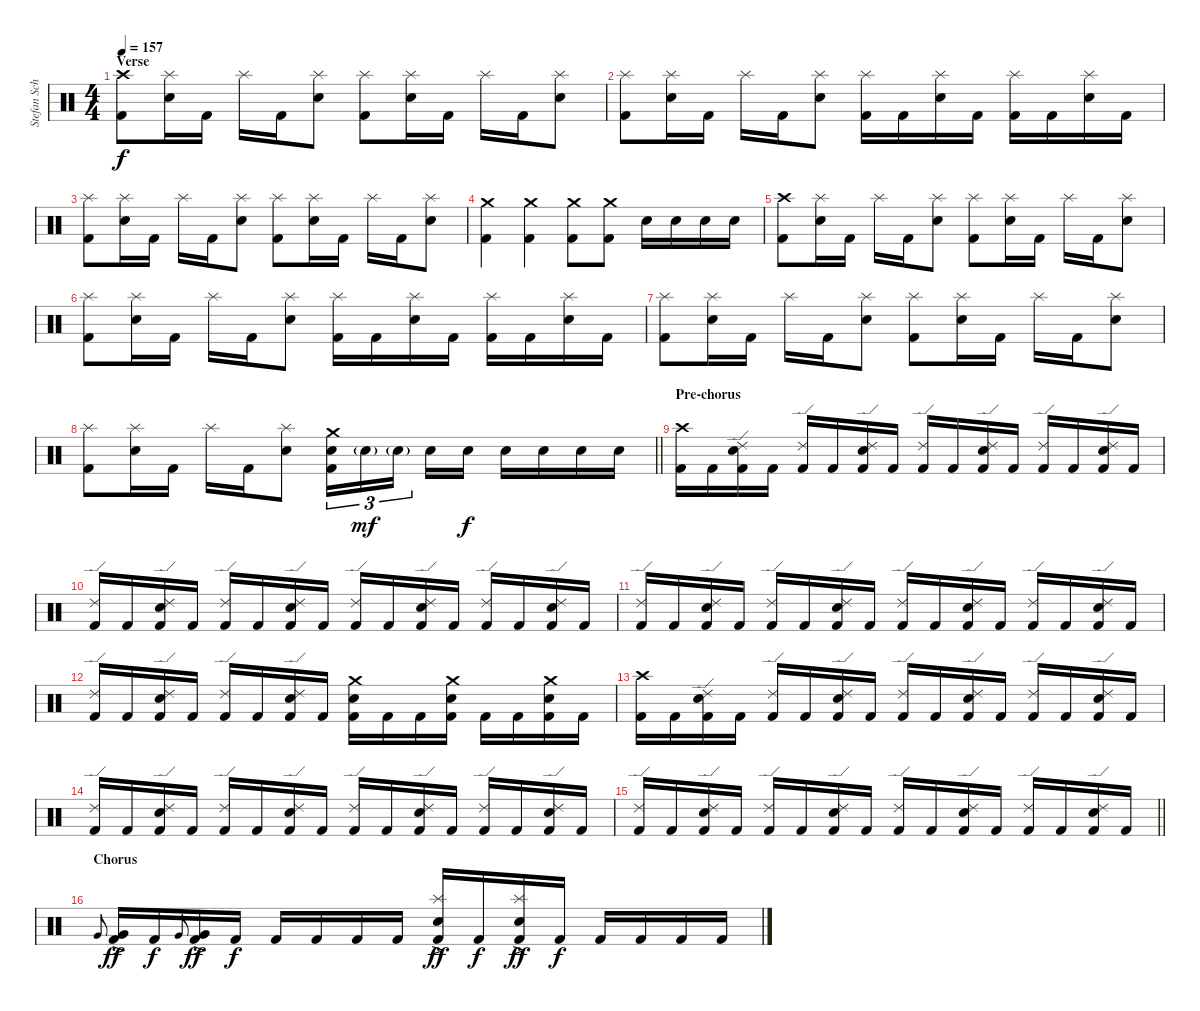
\track ("Stefan Schwarzmann" "Stefan Sch") {instrument percussion}
\staff {score}
\articulation defaults
\ts (4 4)
\section ("" "Verse")
\tempo 157
\clef neutral
\ks c
("Crash high (hit)" "Kick (hit) 2").8{dy f} ("Splash (hit)" "Snare (hit) 2").16 "Kick (hit) 2".16 "Splash (hit)".16 "Kick (hit) 2".16 ("Splash (hit)" "Snare (hit) 2").8 ("Splash (hit)" "Kick (hit) 2").8 ("Splash (hit)" "Snare (hit) 2").16 "Kick (hit) 2".16 "Splash (hit)".16 "Kick (hit) 2".16 ("Splash (hit)" "Snare (hit) 2").8 |
("Splash (hit)" "Kick (hit) 2").8 ("Splash (hit)" "Snare (hit) 2").16 "Kick (hit) 2".16 "Splash (hit)".16 "Kick (hit) 2".16 ("Splash (hit)" "Snare (hit) 2").8 ("Splash (hit)" "Kick (hit) 2").16 "Kick (hit) 2".16 ("Splash (hit)" "Snare (hit) 2").16 "Kick (hit) 2".16 ("Splash (hit)" "Kick (hit) 2").16 "Kick (hit) 2".16 ("Splash (hit)" "Snare (hit) 2").16 "Kick (hit) 2".16 |
("Splash (hit)" "Kick (hit) 2").8 ("Splash (hit)" "Snare (hit) 2").16 "Kick (hit) 2".16 "Splash (hit)".16 "Kick (hit) 2".16 ("Splash (hit)" "Snare (hit) 2").8 ("Splash (hit)" "Kick (hit) 2").8 ("Splash (hit)" "Snare (hit) 2").16 "Kick (hit) 2".16 "Splash (hit)".16 "Kick (hit) 2".16 ("Splash (hit)" "Snare (hit) 2").8 |
("Crash medium (hit)" "Kick (hit) 2").4 ("Crash medium (hit)" "Kick (hit) 2").4 ("Crash medium (hit)" "Kick (hit) 2").8 ("Crash medium (hit)" "Kick (hit) 2").8 "Snare (hit) 2".16 "Snare (hit) 2".16 "Snare (hit) 2".16 "Snare (hit) 2".16 |
("Crash high (hit)" "Kick (hit) 2").8 ("Splash (hit)" "Snare (hit) 2").16 "Kick (hit) 2".16 "Splash (hit)".16 "Kick (hit) 2".16 ("Splash (hit)" "Snare (hit) 2").8 ("Splash (hit)" "Kick (hit) 2").8 ("Splash (hit)" "Snare (hit) 2").16 "Kick (hit) 2".16 "Splash (hit)".16 "Kick (hit) 2".16 ("Splash (hit)" "Snare (hit) 2").8 |
("Splash (hit)" "Kick (hit) 2").8 ("Splash (hit)" "Snare (hit) 2").16 "Kick (hit) 2".16 "Splash (hit)".16 "Kick (hit) 2".16 ("Splash (hit)" "Snare (hit) 2").8 ("Splash (hit)" "Kick (hit) 2").16 "Kick (hit) 2".16 ("Splash (hit)" "Snare (hit) 2").16 "Kick (hit) 2".16 ("Splash (hit)" "Kick (hit) 2").16 "Kick (hit) 2".16 ("Splash (hit)" "Snare (hit) 2").16 "Kick (hit) 2".16 |
("Splash (hit)" "Kick (hit) 2").8 ("Splash (hit)" "Snare (hit) 2").16 "Kick (hit) 2".16 "Splash (hit)".16 "Kick (hit) 2".16 ("Splash (hit)" "Snare (hit) 2").8 ("Splash (hit)" "Kick (hit) 2").8 ("Splash (hit)" "Snare (hit) 2").16 "Kick (hit) 2".16 "Splash (hit)".16 "Kick (hit) 2".16 ("Splash (hit)" "Snare (hit) 2").8 |
\barLineRight lightlight
("Splash (hit)" "Kick (hit) 2").8 ("Splash (hit)" "Snare (hit) 2").16 "Kick (hit) 2".16 "Splash (hit)".16 "Kick (hit) 2".16 ("Splash (hit)" "Snare (hit) 2").8 ("Crash medium (hit)" "Snare (hit) 2" "Kick (hit) 2").16{tu (3 2)} "Snare (hit) 2"{g}.16{tu (3 2) dy mf} "Snare (hit) 2"{g}.16{tu (3 2) beam splitsecondary} "Snare (hit) 2".16 "Snare (hit) 2".16{dy f} "Snare (hit) 2".16 "Snare (hit) 2".16 "Snare (hit) 2".16 "Snare (hit) 2".16 |
\section ("" "Pre-chorus")
("Crash high (hit)" "Kick (hit) 2").16 "Kick (hit) 2".16 ("Ride (edge) 2" "Snare (hit) 2" "Kick (hit) 2").16 "Kick (hit) 2".16 ("Ride (edge) 2" "Kick (hit) 2").16 "Kick (hit) 2".16 ("Ride (edge) 2" "Snare (hit) 2" "Kick (hit) 2").16 "Kick (hit) 2".16 ("Ride (edge) 2" "Kick (hit) 2").16 "Kick (hit) 2".16 ("Ride (edge) 2" "Snare (hit) 2" "Kick (hit) 2").16 "Kick (hit) 2".16 ("Ride (edge) 2" "Kick (hit) 2").16 "Kick (hit) 2".16 ("Ride (edge) 2" "Snare (hit) 2" "Kick (hit) 2").16 "Kick (hit) 2".16 |
("Ride (edge) 2" "Kick (hit) 2").16 "Kick (hit) 2".16 ("Ride (edge) 2" "Snare (hit) 2" "Kick (hit) 2").16 "Kick (hit) 2".16 ("Ride (edge) 2" "Kick (hit) 2").16 "Kick (hit) 2".16 ("Ride (edge) 2" "Snare (hit) 2" "Kick (hit) 2").16 "Kick (hit) 2".16 ("Ride (edge) 2" "Kick (hit) 2").16 "Kick (hit) 2".16 ("Ride (edge) 2" "Snare (hit) 2" "Kick (hit) 2").16 "Kick (hit) 2".16 ("Ride (edge) 2" "Kick (hit) 2").16 "Kick (hit) 2".16 ("Ride (edge) 2" "Snare (hit) 2" "Kick (hit) 2").16 "Kick (hit) 2".16 |
("Ride (edge) 2" "Kick (hit) 2").16 "Kick (hit) 2".16 ("Ride (edge) 2" "Snare (hit) 2" "Kick (hit) 2").16 "Kick (hit) 2".16 ("Ride (edge) 2" "Kick (hit) 2").16 "Kick (hit) 2".16 ("Ride (edge) 2" "Snare (hit) 2" "Kick (hit) 2").16 "Kick (hit) 2".16 ("Ride (edge) 2" "Kick (hit) 2").16 "Kick (hit) 2".16 ("Ride (edge) 2" "Snare (hit) 2" "Kick (hit) 2").16 "Kick (hit) 2".16 ("Ride (edge) 2" "Kick (hit) 2").16 "Kick (hit) 2".16 ("Ride (edge) 2" "Snare (hit) 2" "Kick (hit) 2").16 "Kick (hit) 2".16 |
("Ride (edge) 2" "Kick (hit) 2").16 "Kick (hit) 2".16 ("Ride (edge) 2" "Snare (hit) 2" "Kick (hit) 2").16 "Kick (hit) 2".16 ("Ride (edge) 2" "Kick (hit) 2").16 "Kick (hit) 2".16 ("Ride (edge) 2" "Snare (hit) 2" "Kick (hit) 2").16 "Kick (hit) 2".16 ("Crash medium (hit)" "Snare (hit) 2" "Kick (hit) 2").16 "Kick (hit) 2".16 "Kick (hit) 2".16 ("Crash medium (hit)" "Snare (hit) 2" "Kick (hit) 2").16 "Kick (hit) 2".16 "Kick (hit) 2".16 ("Crash medium (hit)" "Snare (hit) 2" "Kick (hit) 2").16 "Kick (hit) 2".16 |
("Crash high (hit)" "Kick (hit) 2").16 "Kick (hit) 2".16 ("Ride (edge) 2" "Snare (hit) 2" "Kick (hit) 2").16 "Kick (hit) 2".16 ("Ride (edge) 2" "Kick (hit) 2").16 "Kick (hit) 2".16 ("Ride (edge) 2" "Snare (hit) 2" "Kick (hit) 2").16 "Kick (hit) 2".16 ("Ride (edge) 2" "Kick (hit) 2").16 "Kick (hit) 2".16 ("Ride (edge) 2" "Snare (hit) 2" "Kick (hit) 2").16 "Kick (hit) 2".16 ("Ride (edge) 2" "Kick (hit) 2").16 "Kick (hit) 2".16 ("Ride (edge) 2" "Snare (hit) 2" "Kick (hit) 2").16 "Kick (hit) 2".16 |
("Ride (edge) 2" "Kick (hit) 2").16 "Kick (hit) 2".16 ("Ride (edge) 2" "Snare (hit) 2" "Kick (hit) 2").16 "Kick (hit) 2".16 ("Ride (edge) 2" "Kick (hit) 2").16 "Kick (hit) 2".16 ("Ride (edge) 2" "Snare (hit) 2" "Kick (hit) 2").16 "Kick (hit) 2".16 ("Ride (edge) 2" "Kick (hit) 2").16 "Kick (hit) 2".16 ("Ride (edge) 2" "Snare (hit) 2" "Kick (hit) 2").16 "Kick (hit) 2".16 ("Ride (edge) 2" "Kick (hit) 2").16 "Kick (hit) 2".16 ("Ride (edge) 2" "Snare (hit) 2" "Kick (hit) 2").16 "Kick (hit) 2".16 |
\barLineRight lightlight
("Ride (edge) 2" "Kick (hit) 2").16 "Kick (hit) 2".16 ("Ride (edge) 2" "Snare (hit) 2" "Kick (hit) 2").16 "Kick (hit) 2".16 ("Ride (edge) 2" "Kick (hit) 2").16 "Kick (hit) 2".16 ("Ride (edge) 2" "Snare (hit) 2" "Kick (hit) 2").16 "Kick (hit) 2".16 ("Ride (edge) 2" "Kick (hit) 2").16 "Kick (hit) 2".16 ("Ride (edge) 2" "Snare (hit) 2" "Kick (hit) 2").16 "Kick (hit) 2".16 ("Ride (edge) 2" "Kick (hit) 2").16 "Kick (hit) 2".16 ("Ride (edge) 2" "Snare (hit) 2" "Kick (hit) 2").16 "Kick (hit) 2".16 |
\section ("" "Chorus")
"Very Low Tom (hit)".8{gr onbeat} ("Very Low Tom (hit)"{ac} "Kick (hit) 2").16{dy ff} "Kick (hit) 2".16{dy f} "Very Low Tom (hit)".8{gr onbeat} ("Very Low Tom (hit)"{ac} "Kick (hit) 2").16{dy ff} "Kick (hit) 2".16{dy f} "Kick (hit) 2".16 "Kick (hit) 2".16 "Kick (hit) 2".16 "Kick (hit) 2".16 ("Splash (hit)"{ac} "Snare (hit) 2" "Kick (hit) 2").16{dy ff} "Kick (hit) 2".16{dy f} ("Splash (hit)"{ac} "Snare (hit) 2" "Kick (hit) 2").16{dy ff} "Kick (hit) 2".16{dy f} "Kick (hit) 2".16 "Kick (hit) 2".16 "Kick (hit) 2".16 "Kick (hit) 2".16
